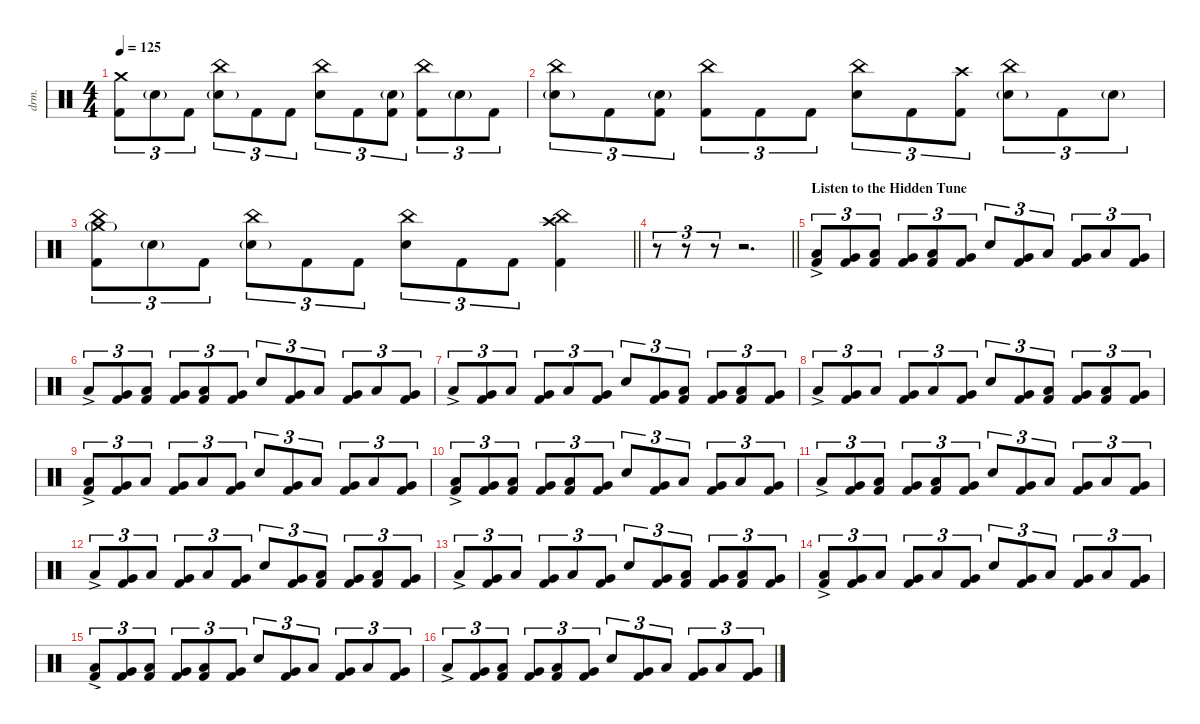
\defaultSystemsLayout 4
\hideDynamics
\bracketExtendMode nobrackets
\track ("DRUMS (Thomas Haake)" "drm.") {instrument percussion}
\staff {score}
\articulation defaults
\ts (4 4)
\tempo 125
\clef neutral
\ks c
("Crash medium (hit)" "Kick (hit) 2").8{tu (3 2) dy f} "Snare (hit) 2"{g}.8{tu (3 2) dy p} "Kick (hit) 2".8{tu (3 2) dy f} ("China (hit)" "Snare (hit) 2"{g}).8{tu (3 2)} "Kick (hit) 2".8{tu (3 2)} "Kick (hit) 2".8{tu (3 2)} ("China (hit)" "Snare (hit) 2").8{tu (3 2)} "Kick (hit) 2".8{tu (3 2)} ("Snare (hit) 2"{g} "Kick (hit) 2").8{tu (3 2)} ("China (hit)" "Kick (hit) 2").8{tu (3 2)} "Snare (hit) 2"{g}.8{tu (3 2) dy p} "Kick (hit) 2".8{tu (3 2) dy f} |
("China (hit)" "Snare (hit) 2"{g}).8{tu (3 2)} "Kick (hit) 2".8{tu (3 2)} ("Snare (hit) 2"{g} "Kick (hit) 2").8{tu (3 2)} ("China (hit)" "Kick (hit) 2").8{tu (3 2)} "Kick (hit) 2".8{tu (3 2)} "Kick (hit) 2".8{tu (3 2)} ("China (hit)" "Snare (hit) 2").8{tu (3 2)} "Kick (hit) 2".8{tu (3 2)} ("Crash high (hit)" "Kick (hit) 2").8{tu (3 2)} ("China (hit)" "Snare (hit) 2"{g}).8{tu (3 2)} "Kick (hit) 2".8{tu (3 2)} "Snare (hit) 2"{g}.8{tu (3 2) dy p} |
\barLineRight lightlight
("China (hit)" "Crash medium (hit)"{g} "Kick (hit) 2").8{tu (3 2) dy f} "Snare (hit) 2"{g}.8{tu (3 2) dy p} "Kick (hit) 2".8{tu (3 2) dy f} ("China (hit)" "Snare (hit) 2"{g}).8{tu (3 2)} "Kick (hit) 2".8{tu (3 2)} "Kick (hit) 2".8{tu (3 2)} ("China (hit)" "Snare (hit) 2").8{tu (3 2)} "Kick (hit) 2".8{tu (3 2)} "Kick (hit) 2".8{tu (3 2)} ("China (hit)" "Crash high (hit)" "Kick (hit) 2").4{dy mf} |
\barLineRight lightlight
r.8{tu (3 2)} r.8{tu (3 2)} r.8{tu (3 2)} r.2{d} |
\section ("" "Listen to the Hidden Tune")
("Low Floor Tom (hit)"{ac} "Kick (hit) 2").8{tu (3 2) dy f} ("Very Low Tom (hit)" "Kick (hit) 2").8{tu (3 2) dy mf} ("Low Floor Tom (hit)" "Kick (hit) 2").8{tu (3 2) dy mp} ("Very Low Tom (hit)" "Kick (hit) 2").8{tu (3 2)} ("Low Floor Tom (hit)" "Kick (hit) 2").8{tu (3 2) dy mf} ("Very Low Tom (hit)" "Kick (hit) 2").8{tu (3 2)} "Snare (hit) 2".8{tu (3 2) dy f} ("Very Low Tom (hit)" "Kick (hit) 2").8{tu (3 2) dy mp} "Low Floor Tom (hit)".8{tu (3 2) dy mf} ("Very Low Tom (hit)" "Kick (hit) 2").8{tu (3 2)} "Low Floor Tom (hit)".8{tu (3 2) dy mp} ("Very Low Tom (hit)" "Kick (hit) 2").8{tu (3 2)} |
"Low Floor Tom (hit)"{ac}.8{tu (3 2) dy mf} ("Very Low Tom (hit)" "Kick (hit) 2").8{tu (3 2)} ("Low Floor Tom (hit)" "Kick (hit) 2").8{tu (3 2) dy mp} ("Very Low Tom (hit)" "Kick (hit) 2").8{tu (3 2)} ("Low Floor Tom (hit)" "Kick (hit) 2").8{tu (3 2) dy mf} ("Very Low Tom (hit)" "Kick (hit) 2").8{tu (3 2)} "Snare (hit) 2".8{tu (3 2) dy f} ("Very Low Tom (hit)" "Kick (hit) 2").8{tu (3 2) dy mp} "Low Floor Tom (hit)".8{tu (3 2) dy mf} ("Very Low Tom (hit)" "Kick (hit) 2").8{tu (3 2)} "Low Floor Tom (hit)".8{tu (3 2) dy mp} ("Very Low Tom (hit)" "Kick (hit) 2").8{tu (3 2)} |
"Low Floor Tom (hit)"{ac}.8{tu (3 2) dy mf} ("Very Low Tom (hit)" "Kick (hit) 2").8{tu (3 2)} "Low Floor Tom (hit)".8{tu (3 2) dy mp} ("Very Low Tom (hit)" "Kick (hit) 2").8{tu (3 2)} "Low Floor Tom (hit)".8{tu (3 2) dy mf} ("Very Low Tom (hit)" "Kick (hit) 2").8{tu (3 2)} "Snare (hit) 2".8{tu (3 2) dy f} ("Very Low Tom (hit)" "Kick (hit) 2").8{tu (3 2) dy mp} ("Low Floor Tom (hit)" "Kick (hit) 2").8{tu (3 2) dy mf} ("Very Low Tom (hit)" "Kick (hit) 2").8{tu (3 2)} ("Low Floor Tom (hit)" "Kick (hit) 2").8{tu (3 2) dy mp} ("Very Low Tom (hit)" "Kick (hit) 2").8{tu (3 2)} |
"Low Floor Tom (hit)"{ac}.8{tu (3 2) dy mf} ("Very Low Tom (hit)" "Kick (hit) 2").8{tu (3 2)} "Low Floor Tom (hit)".8{tu (3 2) dy mp} ("Very Low Tom (hit)" "Kick (hit) 2").8{tu (3 2)} "Low Floor Tom (hit)".8{tu (3 2) dy mf} ("Very Low Tom (hit)" "Kick (hit) 2").8{tu (3 2)} "Snare (hit) 2".8{tu (3 2) dy f} ("Very Low Tom (hit)" "Kick (hit) 2").8{tu (3 2) dy mp} ("Low Floor Tom (hit)" "Kick (hit) 2").8{tu (3 2) dy mf} ("Very Low Tom (hit)" "Kick (hit) 2").8{tu (3 2)} ("Low Floor Tom (hit)" "Kick (hit) 2").8{tu (3 2) dy mp} ("Very Low Tom (hit)" "Kick (hit) 2").8{tu (3 2)} |
("Low Floor Tom (hit)"{ac} "Kick (hit) 2").8{tu (3 2) dy f} ("Very Low Tom (hit)" "Kick (hit) 2").8{tu (3 2) dy mf} "Low Floor Tom (hit)".8{tu (3 2) dy mp} ("Very Low Tom (hit)" "Kick (hit) 2").8{tu (3 2)} "Low Floor Tom (hit)".8{tu (3 2) dy mf} ("Very Low Tom (hit)" "Kick (hit) 2").8{tu (3 2)} "Snare (hit) 2".8{tu (3 2) dy f} ("Very Low Tom (hit)" "Kick (hit) 2").8{tu (3 2) dy mp} "Low Floor Tom (hit)".8{tu (3 2) dy mf} ("Very Low Tom (hit)" "Kick (hit) 2").8{tu (3 2)} "Low Floor Tom (hit)".8{tu (3 2) dy mp} ("Very Low Tom (hit)" "Kick (hit) 2").8{tu (3 2)} |
("Low Floor Tom (hit)"{ac} "Kick (hit) 2").8{tu (3 2) dy f} ("Very Low Tom (hit)" "Kick (hit) 2").8{tu (3 2) dy mf} ("Low Floor Tom (hit)" "Kick (hit) 2").8{tu (3 2) dy mp} ("Very Low Tom (hit)" "Kick (hit) 2").8{tu (3 2)} ("Low Floor Tom (hit)" "Kick (hit) 2").8{tu (3 2) dy mf} ("Very Low Tom (hit)" "Kick (hit) 2").8{tu (3 2)} "Snare (hit) 2".8{tu (3 2) dy f} ("Very Low Tom (hit)" "Kick (hit) 2").8{tu (3 2) dy mp} "Low Floor Tom (hit)".8{tu (3 2) dy mf} ("Very Low Tom (hit)" "Kick (hit) 2").8{tu (3 2)} "Low Floor Tom (hit)".8{tu (3 2) dy mp} ("Very Low Tom (hit)" "Kick (hit) 2").8{tu (3 2)} |
"Low Floor Tom (hit)"{ac}.8{tu (3 2) dy mf} ("Very Low Tom (hit)" "Kick (hit) 2").8{tu (3 2)} ("Low Floor Tom (hit)" "Kick (hit) 2").8{tu (3 2) dy mp} ("Very Low Tom (hit)" "Kick (hit) 2").8{tu (3 2)} ("Low Floor Tom (hit)" "Kick (hit) 2").8{tu (3 2) dy mf} ("Very Low Tom (hit)" "Kick (hit) 2").8{tu (3 2)} "Snare (hit) 2".8{tu (3 2) dy f} ("Very Low Tom (hit)" "Kick (hit) 2").8{tu (3 2) dy mp} "Low Floor Tom (hit)".8{tu (3 2) dy mf} ("Very Low Tom (hit)" "Kick (hit) 2").8{tu (3 2)} "Low Floor Tom (hit)".8{tu (3 2) dy mp} ("Very Low Tom (hit)" "Kick (hit) 2").8{tu (3 2)} |
"Low Floor Tom (hit)"{ac}.8{tu (3 2) dy mf} ("Very Low Tom (hit)" "Kick (hit) 2").8{tu (3 2)} "Low Floor Tom (hit)".8{tu (3 2) dy mp} ("Very Low Tom (hit)" "Kick (hit) 2").8{tu (3 2)} "Low Floor Tom (hit)".8{tu (3 2) dy mf} ("Very Low Tom (hit)" "Kick (hit) 2").8{tu (3 2)} "Snare (hit) 2".8{tu (3 2) dy f} ("Very Low Tom (hit)" "Kick (hit) 2").8{tu (3 2) dy mp} ("Low Floor Tom (hit)" "Kick (hit) 2").8{tu (3 2) dy mf} ("Very Low Tom (hit)" "Kick (hit) 2").8{tu (3 2)} ("Low Floor Tom (hit)" "Kick (hit) 2").8{tu (3 2) dy mp} ("Very Low Tom (hit)" "Kick (hit) 2").8{tu (3 2)} |
"Low Floor Tom (hit)"{ac}.8{tu (3 2) dy mf} ("Very Low Tom (hit)" "Kick (hit) 2").8{tu (3 2)} "Low Floor Tom (hit)".8{tu (3 2) dy mp} ("Very Low Tom (hit)" "Kick (hit) 2").8{tu (3 2)} "Low Floor Tom (hit)".8{tu (3 2) dy mf} ("Very Low Tom (hit)" "Kick (hit) 2").8{tu (3 2)} "Snare (hit) 2".8{tu (3 2) dy f} ("Very Low Tom (hit)" "Kick (hit) 2").8{tu (3 2) dy mp} ("Low Floor Tom (hit)" "Kick (hit) 2").8{tu (3 2) dy mf} ("Very Low Tom (hit)" "Kick (hit) 2").8{tu (3 2)} ("Low Floor Tom (hit)" "Kick (hit) 2").8{tu (3 2) dy mp} ("Very Low Tom (hit)" "Kick (hit) 2").8{tu (3 2)} |
("Low Floor Tom (hit)"{ac} "Kick (hit) 2").8{tu (3 2) dy f} ("Very Low Tom (hit)" "Kick (hit) 2").8{tu (3 2) dy mf} "Low Floor Tom (hit)".8{tu (3 2) dy mp} ("Very Low Tom (hit)" "Kick (hit) 2").8{tu (3 2)} "Low Floor Tom (hit)".8{tu (3 2) dy mf} ("Very Low Tom (hit)" "Kick (hit) 2").8{tu (3 2)} "Snare (hit) 2".8{tu (3 2) dy f} ("Very Low Tom (hit)" "Kick (hit) 2").8{tu (3 2) dy mp} "Low Floor Tom (hit)".8{tu (3 2) dy mf} ("Very Low Tom (hit)" "Kick (hit) 2").8{tu (3 2)} "Low Floor Tom (hit)".8{tu (3 2) dy mp} ("Very Low Tom (hit)" "Kick (hit) 2").8{tu (3 2)} |
("Low Floor Tom (hit)"{ac} "Kick (hit) 2").8{tu (3 2) dy f} ("Very Low Tom (hit)" "Kick (hit) 2").8{tu (3 2) dy mf} ("Low Floor Tom (hit)" "Kick (hit) 2").8{tu (3 2) dy mp} ("Very Low Tom (hit)" "Kick (hit) 2").8{tu (3 2)} ("Low Floor Tom (hit)" "Kick (hit) 2").8{tu (3 2) dy mf} ("Very Low Tom (hit)" "Kick (hit) 2").8{tu (3 2)} "Snare (hit) 2".8{tu (3 2) dy f} ("Very Low Tom (hit)" "Kick (hit) 2").8{tu (3 2) dy mp} "Low Floor Tom (hit)".8{tu (3 2) dy mf} ("Very Low Tom (hit)" "Kick (hit) 2").8{tu (3 2)} "Low Floor Tom (hit)".8{tu (3 2) dy mp} ("Very Low Tom (hit)" "Kick (hit) 2").8{tu (3 2)} |
"Low Floor Tom (hit)"{ac}.8{tu (3 2) dy mf} ("Very Low Tom (hit)" "Kick (hit) 2").8{tu (3 2)} ("Low Floor Tom (hit)" "Kick (hit) 2").8{tu (3 2) dy mp} ("Very Low Tom (hit)" "Kick (hit) 2").8{tu (3 2)} ("Low Floor Tom (hit)" "Kick (hit) 2").8{tu (3 2) dy mf} ("Very Low Tom (hit)" "Kick (hit) 2").8{tu (3 2)} "Snare (hit) 2".8{tu (3 2) dy f} ("Very Low Tom (hit)" "Kick (hit) 2").8{tu (3 2) dy mp} "Low Floor Tom (hit)".8{tu (3 2) dy mf} ("Very Low Tom (hit)" "Kick (hit) 2").8{tu (3 2)} "Low Floor Tom (hit)".8{tu (3 2) dy mp} ("Very Low Tom (hit)" "Kick (hit) 2").8{tu (3 2)}
